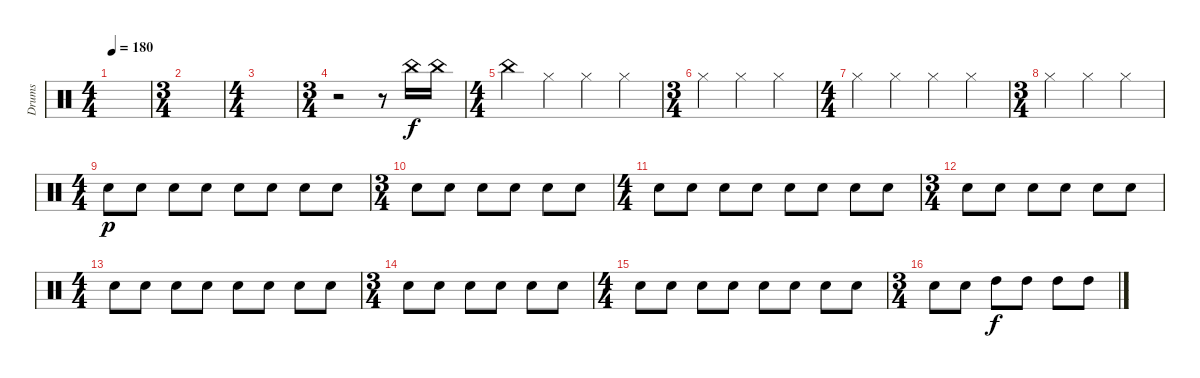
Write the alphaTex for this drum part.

\track ("Drums" "Drums") {instrument percussion}
\staff {score}
\articulation defaults
\ts (4 4)
\tempo 180
\clef neutral
\ks c
|
\ts (3 4)
|
\ts (4 4)
|
\ts (3 4)
r.2 r.8 "China (hit)".16 "China (hit)".16 |
\ts (4 4)
"China (hit)".4 "Hi-Hat (closed)".4 "Hi-Hat (closed)".4 "Hi-Hat (closed)".4 |
\ts (3 4)
"Hi-Hat (closed)".4 "Hi-Hat (closed)".4 "Hi-Hat (closed)".4 |
\ts (4 4)
"Hi-Hat (closed)".4 "Hi-Hat (closed)".4 "Hi-Hat (closed)".4 "Hi-Hat (closed)".4 |
\ts (3 4)
"Hi-Hat (closed)".4 "Hi-Hat (closed)".4 "Hi-Hat (closed)".4 |
\ts (4 4)
"Snare (hit) 2".8{dy p} "Snare (hit) 2".8 "Snare (hit) 2".8 "Snare (hit) 2".8 "Snare (hit) 2".8 "Snare (hit) 2".8 "Snare (hit) 2".8 "Snare (hit) 2".8 |
\ts (3 4)
"Snare (hit) 2".8 "Snare (hit) 2".8 "Snare (hit) 2".8 "Snare (hit) 2".8 "Snare (hit) 2".8 "Snare (hit) 2".8 |
\ts (4 4)
"Snare (hit) 2".8 "Snare (hit) 2".8 "Snare (hit) 2".8 "Snare (hit) 2".8 "Snare (hit) 2".8 "Snare (hit) 2".8 "Snare (hit) 2".8 "Snare (hit) 2".8 |
\ts (3 4)
"Snare (hit) 2".8 "Snare (hit) 2".8 "Snare (hit) 2".8 "Snare (hit) 2".8 "Snare (hit) 2".8 "Snare (hit) 2".8 |
\ts (4 4)
"Snare (hit) 2".8 "Snare (hit) 2".8 "Snare (hit) 2".8 "Snare (hit) 2".8 "Snare (hit) 2".8 "Snare (hit) 2".8 "Snare (hit) 2".8 "Snare (hit) 2".8 |
\ts (3 4)
"Snare (hit) 2".8 "Snare (hit) 2".8 "Snare (hit) 2".8 "Snare (hit) 2".8 "Snare (hit) 2".8 "Snare (hit) 2".8 |
\ts (4 4)
"Snare (hit) 2".8 "Snare (hit) 2".8 "Snare (hit) 2".8 "Snare (hit) 2".8 "Snare (hit) 2".8 "Snare (hit) 2".8 "Snare (hit) 2".8 "Snare (hit) 2".8 |
\ts (3 4)
"Snare (hit) 2".8 "Snare (hit) 2".8 "High Tom (hit)".8{dy f} "High Tom (hit)".8 "High Tom (hit)".8 "High Tom (hit)".8
